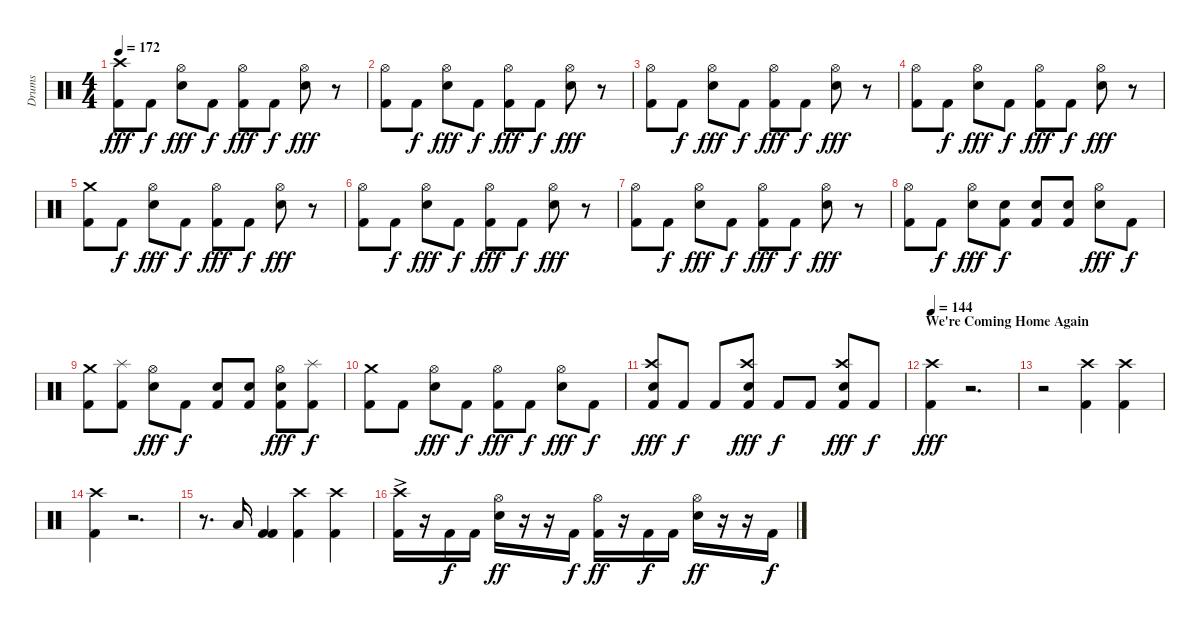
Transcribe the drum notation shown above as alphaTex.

\track ("Drums" "Drums") {instrument percussion}
\staff {score}
\articulation defaults
\ts (4 4)
\tempo 172
\clef neutral
\ks c
("Kick (hit) 2" "Crash high (hit)").8{dy fff} "Kick (hit) 2".8{dy f} ("Electric Snare (hit)" "Hi-Hat (open)").8{dy fff} "Kick (hit) 2".8{dy f} ("Kick (hit) 2" "Hi-Hat (open)").8{dy fff} "Kick (hit) 2".8{dy f} ("Electric Snare (hit)" "Hi-Hat (open)").8{dy fff} r.8 |
("Kick (hit) 2" "Hi-Hat (open)").8 "Kick (hit) 2".8{dy f} ("Electric Snare (hit)" "Hi-Hat (open)").8{dy fff} "Kick (hit) 2".8{dy f} ("Kick (hit) 2" "Hi-Hat (open)").8{dy fff} "Kick (hit) 2".8{dy f} ("Electric Snare (hit)" "Hi-Hat (open)").8{dy fff} r.8 |
("Kick (hit) 2" "Hi-Hat (open)").8 "Kick (hit) 2".8{dy f} ("Electric Snare (hit)" "Hi-Hat (open)").8{dy fff} "Kick (hit) 2".8{dy f} ("Kick (hit) 2" "Hi-Hat (open)").8{dy fff} "Kick (hit) 2".8{dy f} ("Electric Snare (hit)" "Hi-Hat (open)").8{dy fff} r.8 |
("Kick (hit) 2" "Hi-Hat (open)").8 "Kick (hit) 2".8{dy f} ("Electric Snare (hit)" "Hi-Hat (open)").8{dy fff} "Kick (hit) 2".8{dy f} ("Kick (hit) 2" "Hi-Hat (open)").8{dy fff} "Kick (hit) 2".8{dy f} ("Electric Snare (hit)" "Hi-Hat (open)").8{dy fff} r.8 |
("Kick (hit) 2" "Crash medium (hit)").8 "Kick (hit) 2".8{dy f} ("Electric Snare (hit)" "Hi-Hat (open)").8{dy fff} "Kick (hit) 2".8{dy f} ("Kick (hit) 2" "Hi-Hat (open)").8{dy fff} "Kick (hit) 2".8{dy f} ("Electric Snare (hit)" "Hi-Hat (open)").8{dy fff} r.8 |
("Kick (hit) 2" "Hi-Hat (open)").8 "Kick (hit) 2".8{dy f} ("Electric Snare (hit)" "Hi-Hat (open)").8{dy fff} "Kick (hit) 2".8{dy f} ("Kick (hit) 2" "Hi-Hat (open)").8{dy fff} "Kick (hit) 2".8{dy f} ("Electric Snare (hit)" "Hi-Hat (open)").8{dy fff} r.8 |
("Kick (hit) 2" "Hi-Hat (open)").8 "Kick (hit) 2".8{dy f} ("Electric Snare (hit)" "Hi-Hat (open)").8{dy fff} "Kick (hit) 2".8{dy f} ("Kick (hit) 2" "Hi-Hat (open)").8{dy fff} "Kick (hit) 2".8{dy f} ("Electric Snare (hit)" "Hi-Hat (open)").8{dy fff} r.8 |
("Kick (hit) 2" "Hi-Hat (open)").8 "Kick (hit) 2".8{dy f} ("Electric Snare (hit)" "Hi-Hat (open)").8{dy fff} ("Kick (hit) 2" "Snare (hit) 2").8{dy f} ("Kick (hit) 2" "Snare (hit) 2").8 ("Kick (hit) 2" "Snare (hit) 2").8 ("Snare (hit) 2" "Hi-Hat (open)").8{dy fff} "Kick (hit) 2".8{dy f} |
("Kick (hit) 2" "Crash medium (hit)").8 ("Kick (hit) 2" "Splash (hit)").8 ("Electric Snare (hit)" "Hi-Hat (open)").8{dy fff} "Kick (hit) 2".8{dy f} ("Kick (hit) 2" "Snare (hit) 2").8 ("Kick (hit) 2" "Snare (hit) 2").8 ("Kick (hit) 2" "Snare (hit) 2" "Hi-Hat (open)").8{dy fff} ("Kick (hit) 2" "Splash (hit)").8{dy f} |
("Kick (hit) 2" "Crash medium (hit)").8 "Kick (hit) 2".8 ("Electric Snare (hit)" "Hi-Hat (open)").8{dy fff} "Kick (hit) 2".8{dy f} ("Kick (hit) 2" "Hi-Hat (open)").8{dy fff} "Kick (hit) 2".8{dy f} ("Electric Snare (hit)" "Hi-Hat (open)").8{dy fff} "Kick (hit) 2".8{dy f} |
("Kick (hit) 2" "Snare (hit) 2" "Crash high (hit)").8{dy fff} "Kick (hit) 2".8{dy f} "Kick (hit) 2".8 ("Kick (hit) 2" "Snare (hit) 2" "Crash high (hit)").8{dy fff} "Kick (hit) 2".8{dy f} "Kick (hit) 2".8 ("Kick (hit) 2" "Snare (hit) 2" "Crash high (hit)").8{dy fff} "Kick (hit) 2".8{dy f} |
\section ("" "We're Coming Home Again")
\tempo 144
("Kick (hit) 2" "Crash high (hit)").4{dy fff} r.2{d} |
r.2 ("Kick (hit) 2" "Crash high (hit)").4 ("Kick (hit) 2" "Crash high (hit)").4 |
("Kick (hit) 2" "Crash high (hit)").4 r.2{d} |
r.8{d} "Low Tom (hit)".16 ("Kick (hit) 2" "Kick (hit) 2").4 ("Kick (hit) 2" "Crash high (hit)").4 ("Kick (hit) 2" "Crash high (hit)").4 |
("Crash high (hit)"{ac} "Kick (hit) 2"{ac}).16 r.16 "Kick (hit) 2".16{dy f} "Kick (hit) 2".16 ("Hi-Hat (open)" "Electric Snare (hit)").16{dy ff} r.16 r.16 "Kick (hit) 2".16{dy f} ("Hi-Hat (open)" "Kick (hit) 2").16{dy ff} r.16 "Kick (hit) 2".16{dy f} "Kick (hit) 2".16 ("Hi-Hat (open)" "Electric Snare (hit)").16{dy ff} r.16 r.16 "Kick (hit) 2".16{dy f}
